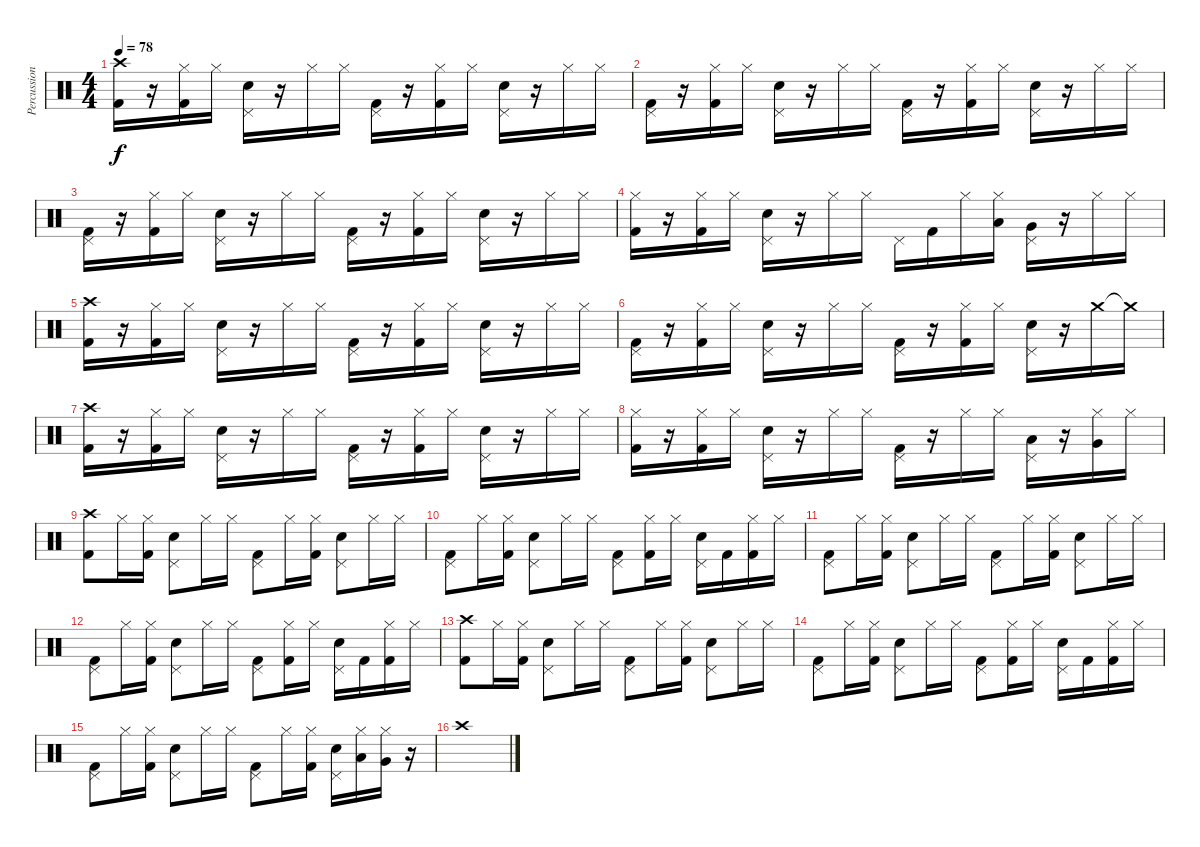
\track ("Percussion" "Percussion") {instrument percussion}
\staff {score}
\articulation defaults
\ts (4 4)
\tempo 78
\clef neutral
\ks c
("Crash high (hit)" "Kick (hit) 2").16{dy f} r.16 ("Hi-Hat (closed)" "Kick (hit) 2").16 "Hi-Hat (closed)".16 ("Pedal Hi-Hat (hit)" "Electric Snare (hit)").16 r.16 "Hi-Hat (closed)".16 "Hi-Hat (closed)".16 ("Pedal Hi-Hat (hit)" "Kick (hit) 2").16 r.16 ("Hi-Hat (closed)" "Kick (hit) 2").16 "Hi-Hat (closed)".16 ("Pedal Hi-Hat (hit)" "Electric Snare (hit)").16 r.16 "Hi-Hat (closed)".16 "Hi-Hat (closed)".16 |
("Pedal Hi-Hat (hit)" "Kick (hit) 2").16 r.16 ("Hi-Hat (closed)" "Kick (hit) 2").16 "Hi-Hat (closed)".16 ("Pedal Hi-Hat (hit)" "Electric Snare (hit)").16 r.16 "Hi-Hat (closed)".16 "Hi-Hat (closed)".16 ("Pedal Hi-Hat (hit)" "Kick (hit) 2").16 r.16 ("Hi-Hat (closed)" "Kick (hit) 2").16 "Hi-Hat (closed)".16 ("Pedal Hi-Hat (hit)" "Electric Snare (hit)").16 r.16 "Hi-Hat (closed)".16 "Hi-Hat (closed)".16 |
("Pedal Hi-Hat (hit)" "Kick (hit) 2").16 r.16 ("Hi-Hat (closed)" "Kick (hit) 2").16 "Hi-Hat (closed)".16 ("Pedal Hi-Hat (hit)" "Electric Snare (hit)").16 r.16 "Hi-Hat (closed)".16 "Hi-Hat (closed)".16 ("Pedal Hi-Hat (hit)" "Kick (hit) 2").16 r.16 ("Hi-Hat (closed)" "Kick (hit) 2").16 "Hi-Hat (closed)".16 ("Pedal Hi-Hat (hit)" "Electric Snare (hit)").16 r.16 "Hi-Hat (closed)".16 "Hi-Hat (closed)".16 |
("Hi-Hat (closed)" "Kick (hit) 2").16 r.16 ("Hi-Hat (closed)" "Kick (hit) 2").16 "Hi-Hat (closed)".16 ("Pedal Hi-Hat (hit)" "Electric Snare (hit)").16 r.16 "Hi-Hat (closed)".16 "Hi-Hat (closed)".16 "Pedal Hi-Hat (hit)".16 "Kick (hit) 2".16 "Hi-Hat (closed)".16 ("Hi-Hat (closed)" "Low Tom (hit)").16 ("Pedal Hi-Hat (hit)" "Very Low Tom (hit)").16 r.16 "Hi-Hat (closed)".16 "Hi-Hat (closed)".16 |
("Crash high (hit)" "Kick (hit) 2").16 r.16 ("Hi-Hat (closed)" "Kick (hit) 2").16 "Hi-Hat (closed)".16 ("Pedal Hi-Hat (hit)" "Electric Snare (hit)").16 r.16 "Hi-Hat (closed)".16 "Hi-Hat (closed)".16 ("Pedal Hi-Hat (hit)" "Kick (hit) 2").16 r.16 ("Hi-Hat (closed)" "Kick (hit) 2").16 "Hi-Hat (closed)".16 ("Pedal Hi-Hat (hit)" "Electric Snare (hit)").16 r.16 "Hi-Hat (closed)".16 "Hi-Hat (closed)".16 |
("Pedal Hi-Hat (hit)" "Kick (hit) 2").16 r.16 ("Hi-Hat (closed)" "Kick (hit) 2").16 "Hi-Hat (closed)".16 ("Pedal Hi-Hat (hit)" "Electric Snare (hit)").16 r.16 "Hi-Hat (closed)".16 "Hi-Hat (closed)".16 ("Pedal Hi-Hat (hit)" "Kick (hit) 2").16 r.16 ("Hi-Hat (closed)" "Kick (hit) 2").16 "Hi-Hat (closed)".16 ("Pedal Hi-Hat (hit)" "Electric Snare (hit)").16 r.16 "Crash medium (hit)".16 "Crash medium (hit)"{t}.16 |
("Crash high (hit)" "Kick (hit) 2").16 r.16 ("Hi-Hat (closed)" "Kick (hit) 2").16 "Hi-Hat (closed)".16 ("Pedal Hi-Hat (hit)" "Electric Snare (hit)").16 r.16 "Hi-Hat (closed)".16 "Hi-Hat (closed)".16 ("Pedal Hi-Hat (hit)" "Kick (hit) 2").16 r.16 ("Hi-Hat (closed)" "Kick (hit) 2").16 "Hi-Hat (closed)".16 ("Pedal Hi-Hat (hit)" "Electric Snare (hit)").16 r.16 "Hi-Hat (closed)".16 "Hi-Hat (closed)".16 |
("Hi-Hat (closed)" "Kick (hit) 2").16 r.16 ("Hi-Hat (closed)" "Kick (hit) 2").16 "Hi-Hat (closed)".16 ("Pedal Hi-Hat (hit)" "Electric Snare (hit)").16 r.16 "Hi-Hat (closed)".16 "Hi-Hat (closed)".16 ("Pedal Hi-Hat (hit)" "Kick (hit) 2").16 r.16 "Hi-Hat (closed)".16 "Hi-Hat (closed)".16 ("Pedal Hi-Hat (hit)" "Low Tom (hit)").16 r.16 ("Hi-Hat (closed)" "Very Low Tom (hit)").16 "Hi-Hat (closed)".16 |
("Crash high (hit)" "Kick (hit) 2").8 "Hi-Hat (closed)".16 ("Hi-Hat (closed)" "Kick (hit) 2").16 ("Pedal Hi-Hat (hit)" "Electric Snare (hit)").8 "Hi-Hat (closed)".16 "Hi-Hat (closed)".16 ("Pedal Hi-Hat (hit)" "Kick (hit) 2").8 "Hi-Hat (closed)".16 ("Hi-Hat (closed)" "Kick (hit) 2").16 ("Pedal Hi-Hat (hit)" "Electric Snare (hit)").8 "Hi-Hat (closed)".16 "Hi-Hat (closed)".16 |
("Pedal Hi-Hat (hit)" "Kick (hit) 2").8 "Hi-Hat (closed)".16 ("Hi-Hat (closed)" "Kick (hit) 2").16 ("Pedal Hi-Hat (hit)" "Electric Snare (hit)").8 "Hi-Hat (closed)".16 "Hi-Hat (closed)".16 ("Pedal Hi-Hat (hit)" "Kick (hit) 2").8 ("Hi-Hat (closed)" "Kick (hit) 2").16 "Hi-Hat (closed)".16 ("Pedal Hi-Hat (hit)" "Electric Snare (hit)").16 "Kick (hit) 2".16 ("Hi-Hat (closed)" "Kick (hit) 2").16 "Hi-Hat (closed)".16 |
("Pedal Hi-Hat (hit)" "Kick (hit) 2").8 "Hi-Hat (closed)".16 ("Hi-Hat (closed)" "Kick (hit) 2").16 ("Pedal Hi-Hat (hit)" "Electric Snare (hit)").8 "Hi-Hat (closed)".16 "Hi-Hat (closed)".16 ("Pedal Hi-Hat (hit)" "Kick (hit) 2").8 "Hi-Hat (closed)".16 ("Hi-Hat (closed)" "Kick (hit) 2").16 ("Pedal Hi-Hat (hit)" "Electric Snare (hit)").8 "Hi-Hat (closed)".16 "Hi-Hat (closed)".16 |
("Pedal Hi-Hat (hit)" "Kick (hit) 2").8 "Hi-Hat (closed)".16 ("Hi-Hat (closed)" "Kick (hit) 2").16 ("Pedal Hi-Hat (hit)" "Electric Snare (hit)").8 "Hi-Hat (closed)".16 "Hi-Hat (closed)".16 ("Pedal Hi-Hat (hit)" "Kick (hit) 2").8 ("Hi-Hat (closed)" "Kick (hit) 2").16 "Hi-Hat (closed)".16 ("Pedal Hi-Hat (hit)" "Electric Snare (hit)").16 "Kick (hit) 2".16 ("Hi-Hat (closed)" "Kick (hit) 2").16 "Hi-Hat (closed)".16 |
("Crash high (hit)" "Kick (hit) 2").8 "Hi-Hat (closed)".16 ("Hi-Hat (closed)" "Kick (hit) 2").16 ("Pedal Hi-Hat (hit)" "Electric Snare (hit)").8 "Hi-Hat (closed)".16 "Hi-Hat (closed)".16 ("Pedal Hi-Hat (hit)" "Kick (hit) 2").8 "Hi-Hat (closed)".16 ("Hi-Hat (closed)" "Kick (hit) 2").16 ("Pedal Hi-Hat (hit)" "Electric Snare (hit)").8 "Hi-Hat (closed)".16 "Hi-Hat (closed)".16 |
("Pedal Hi-Hat (hit)" "Kick (hit) 2").8 "Hi-Hat (closed)".16 ("Hi-Hat (closed)" "Kick (hit) 2").16 ("Pedal Hi-Hat (hit)" "Electric Snare (hit)").8 "Hi-Hat (closed)".16 "Hi-Hat (closed)".16 ("Pedal Hi-Hat (hit)" "Kick (hit) 2").8 ("Hi-Hat (closed)" "Kick (hit) 2").16 "Hi-Hat (closed)".16 ("Pedal Hi-Hat (hit)" "Electric Snare (hit)").16 "Kick (hit) 2".16 ("Hi-Hat (closed)" "Kick (hit) 2").16 "Hi-Hat (closed)".16 |
("Pedal Hi-Hat (hit)" "Kick (hit) 2").8 "Hi-Hat (closed)".16 ("Hi-Hat (closed)" "Kick (hit) 2").16 ("Pedal Hi-Hat (hit)" "Electric Snare (hit)").8 "Hi-Hat (closed)".16 "Hi-Hat (closed)".16 ("Pedal Hi-Hat (hit)" "Kick (hit) 2").8 "Hi-Hat (closed)".16 ("Hi-Hat (closed)" "Kick (hit) 2").16 ("Pedal Hi-Hat (hit)" "Electric Snare (hit)").16 ("Hi-Hat (closed)" "Low Tom (hit)").16 ("Hi-Hat (closed)" "Very Low Tom (hit)").16 r.16 |
"Crash high (hit)".1
